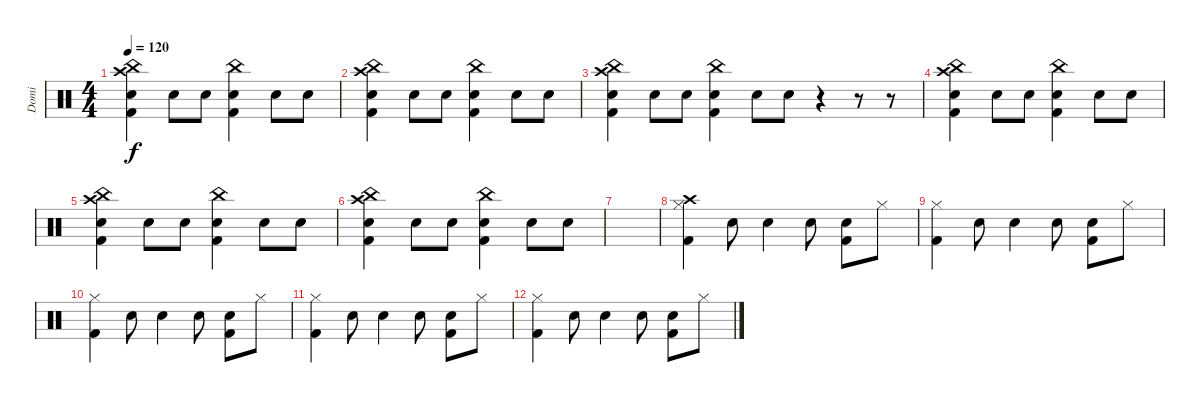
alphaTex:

\track ("Domi" "Domi") {instrument percussion}
\staff {score}
\articulation defaults
\ts (4 4)
\tempo 120
\clef neutral
\ks c
("Crash high (hit)" "Snare (hit) 2" "Kick (hit) 2" "China (hit)").4{dy f} "Snare (hit) 2".8 "Snare (hit) 2".8 ("Snare (hit) 2" "Kick (hit) 2" "China (hit)").4 "Snare (hit) 2".8 "Snare (hit) 2".8 |
("Crash high (hit)" "Snare (hit) 2" "Kick (hit) 2" "China (hit)").4 "Snare (hit) 2".8 "Snare (hit) 2".8 ("Snare (hit) 2" "Kick (hit) 2" "China (hit)").4 "Snare (hit) 2".8 "Snare (hit) 2".8 |
("Crash high (hit)" "Snare (hit) 2" "Kick (hit) 2" "China (hit)").4 "Snare (hit) 2".8 "Snare (hit) 2".8 ("Snare (hit) 2" "Kick (hit) 2" "China (hit)").4 "Snare (hit) 2".8 "Snare (hit) 2".8 r.4 r.8 r.8 |
("Crash high (hit)" "Snare (hit) 2" "Kick (hit) 2" "China (hit)").4 "Snare (hit) 2".8 "Snare (hit) 2".8 ("Snare (hit) 2" "Kick (hit) 2" "China (hit)").4 "Snare (hit) 2".8 "Snare (hit) 2".8 |
("Crash high (hit)" "Snare (hit) 2" "Kick (hit) 2" "China (hit)").4 "Snare (hit) 2".8 "Snare (hit) 2".8 ("Snare (hit) 2" "Kick (hit) 2" "China (hit)").4 "Snare (hit) 2".8 "Snare (hit) 2".8 |
("Crash high (hit)" "Snare (hit) 2" "Kick (hit) 2" "China (hit)").4 "Snare (hit) 2".8 "Snare (hit) 2".8 ("Snare (hit) 2" "Kick (hit) 2" "China (hit)").4 "Snare (hit) 2".8 "Snare (hit) 2".8 |
|
("Crash high (hit)" "Hi-Hat (closed)" "Kick (hit) 2").4 "Snare (hit) 2".8 "Snare (hit) 2".4 "Snare (hit) 2".8 ("Snare (hit) 2" "Kick (hit) 2").8 "Hi-Hat (closed)".8 |
("Hi-Hat (closed)" "Kick (hit) 2").4 "Snare (hit) 2".8 "Snare (hit) 2".4 "Snare (hit) 2".8 ("Snare (hit) 2" "Kick (hit) 2").8 "Hi-Hat (closed)".8 |
("Hi-Hat (closed)" "Kick (hit) 2").4 "Snare (hit) 2".8 "Snare (hit) 2".4 "Snare (hit) 2".8 ("Snare (hit) 2" "Kick (hit) 2").8 "Hi-Hat (closed)".8 |
("Hi-Hat (closed)" "Kick (hit) 2").4 "Snare (hit) 2".8 "Snare (hit) 2".4 "Snare (hit) 2".8 ("Snare (hit) 2" "Kick (hit) 2").8 "Hi-Hat (closed)".8 |
("Hi-Hat (closed)" "Kick (hit) 2").4 "Snare (hit) 2".8 "Snare (hit) 2".4 "Snare (hit) 2".8 ("Snare (hit) 2" "Kick (hit) 2").8 "Hi-Hat (closed)".8
